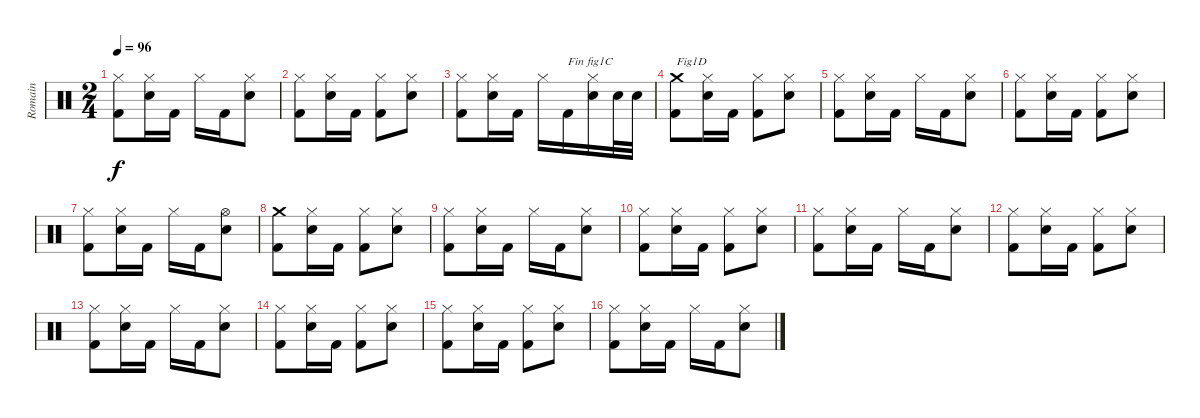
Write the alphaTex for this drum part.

\track ("Romain" "Romain") {instrument percussion}
\staff {score}
\articulation defaults
\ts (2 4)
\tempo 96
\clef neutral
\ks c
("Kick (hit) 2" "Hi-Hat (closed)").8{dy f} ("Electric Snare (hit)" "Hi-Hat (closed)").16 "Kick (hit) 2".16 "Hi-Hat (closed)".16 "Kick (hit) 2".16 ("Electric Snare (hit)" "Hi-Hat (closed)").8 |
("Kick (hit) 2" "Hi-Hat (closed)").8 ("Electric Snare (hit)" "Hi-Hat (closed)").16 "Kick (hit) 2".16 ("Kick (hit) 2" "Hi-Hat (closed)").8 ("Electric Snare (hit)" "Hi-Hat (closed)").8 |
("Kick (hit) 2" "Hi-Hat (closed)").8 ("Electric Snare (hit)" "Hi-Hat (closed)").16 "Kick (hit) 2".16 "Hi-Hat (closed)".16 "Kick (hit) 2".16{txt "Fin fig1C"} ("Electric Snare (hit)" "Hi-Hat (closed)").16 "Electric Snare (hit)".32 "Electric Snare (hit)".32 |
("Kick (hit) 2" "Crash medium (hit)").8{txt "Fig1D"} ("Electric Snare (hit)" "Hi-Hat (closed)").16 "Kick (hit) 2".16 ("Kick (hit) 2" "Hi-Hat (closed)").8 ("Electric Snare (hit)" "Hi-Hat (closed)").8 |
("Kick (hit) 2" "Hi-Hat (closed)").8 ("Electric Snare (hit)" "Hi-Hat (closed)").16 "Kick (hit) 2".16 "Hi-Hat (closed)".16 "Kick (hit) 2".16 ("Electric Snare (hit)" "Hi-Hat (closed)").8 |
("Kick (hit) 2" "Hi-Hat (closed)").8 ("Electric Snare (hit)" "Hi-Hat (closed)").16 "Kick (hit) 2".16 ("Kick (hit) 2" "Hi-Hat (closed)").8 ("Electric Snare (hit)" "Hi-Hat (closed)").8 |
("Kick (hit) 2" "Hi-Hat (closed)").8 ("Electric Snare (hit)" "Hi-Hat (closed)").16 "Kick (hit) 2".16 "Hi-Hat (closed)".16 "Kick (hit) 2".16 ("Electric Snare (hit)" "Hi-Hat (open)").8 |
("Kick (hit) 2" "Crash medium (hit)").8 ("Electric Snare (hit)" "Hi-Hat (closed)").16 "Kick (hit) 2".16 ("Kick (hit) 2" "Hi-Hat (closed)").8 ("Electric Snare (hit)" "Hi-Hat (closed)").8 |
("Kick (hit) 2" "Hi-Hat (closed)").8 ("Electric Snare (hit)" "Hi-Hat (closed)").16 "Kick (hit) 2".16 "Hi-Hat (closed)".16 "Kick (hit) 2".16 ("Electric Snare (hit)" "Hi-Hat (closed)").8 |
("Kick (hit) 2" "Hi-Hat (closed)").8 ("Electric Snare (hit)" "Hi-Hat (closed)").16 "Kick (hit) 2".16 ("Kick (hit) 2" "Hi-Hat (closed)").8 ("Electric Snare (hit)" "Hi-Hat (closed)").8 |
("Kick (hit) 2" "Hi-Hat (closed)").8 ("Electric Snare (hit)" "Hi-Hat (closed)").16 "Kick (hit) 2".16 "Hi-Hat (closed)".16 "Kick (hit) 2".16 ("Electric Snare (hit)" "Hi-Hat (closed)").8 |
("Kick (hit) 2" "Hi-Hat (closed)").8 ("Electric Snare (hit)" "Hi-Hat (closed)").16 "Kick (hit) 2".16 ("Kick (hit) 2" "Hi-Hat (closed)").8 ("Electric Snare (hit)" "Hi-Hat (closed)").8 |
("Kick (hit) 2" "Hi-Hat (closed)").8 ("Electric Snare (hit)" "Hi-Hat (closed)").16 "Kick (hit) 2".16 "Hi-Hat (closed)".16 "Kick (hit) 2".16 ("Electric Snare (hit)" "Hi-Hat (closed)").8 |
("Kick (hit) 2" "Hi-Hat (closed)").8 ("Electric Snare (hit)" "Hi-Hat (closed)").16 "Kick (hit) 2".16 ("Kick (hit) 2" "Hi-Hat (closed)").8 ("Electric Snare (hit)" "Hi-Hat (closed)").8 |
("Kick (hit) 2" "Hi-Hat (closed)").8 ("Electric Snare (hit)" "Hi-Hat (closed)").16 "Kick (hit) 2".16 ("Kick (hit) 2" "Hi-Hat (closed)").8 ("Electric Snare (hit)" "Hi-Hat (closed)").8 |
("Kick (hit) 2" "Hi-Hat (closed)").8 ("Electric Snare (hit)" "Hi-Hat (closed)").16 "Kick (hit) 2".16 "Hi-Hat (closed)".16 "Kick (hit) 2".16 ("Electric Snare (hit)" "Hi-Hat (closed)").8
